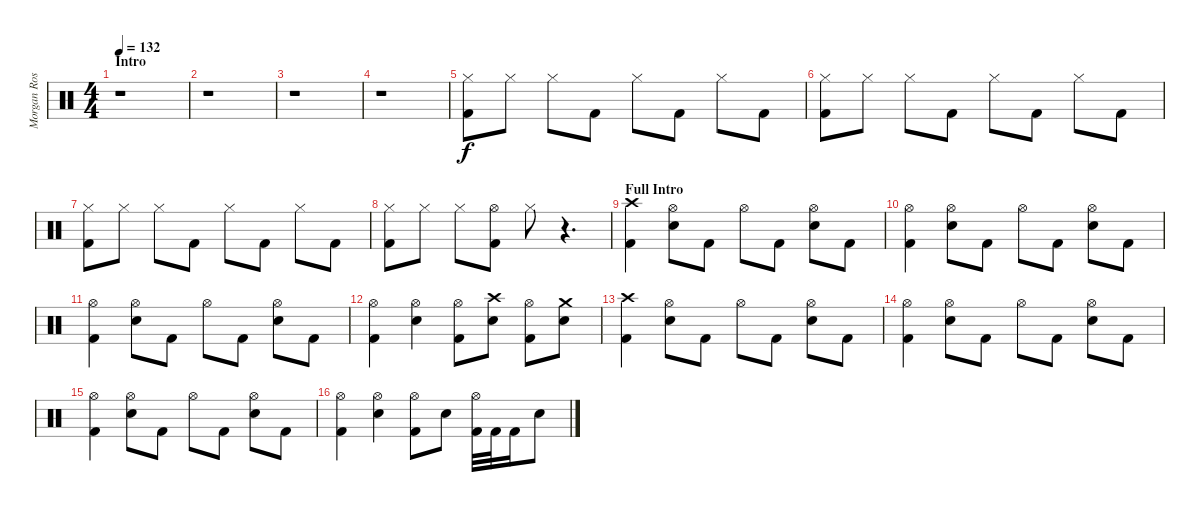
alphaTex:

\track ("Morgan Rose" "Morgan Ros") {instrument percussion}
\staff {score}
\articulation defaults
\ts (4 4)
\section ("" "Intro")
\tempo 132
\clef neutral
\ks c
r.1{dy f} |
r.1 |
r.1 |
r.1 |
("Hi-Hat (closed)" "Kick (hit) 2").8 "Hi-Hat (closed)".8 "Hi-Hat (closed)".8 "Kick (hit) 2".8 "Hi-Hat (closed)".8 "Kick (hit) 2".8 "Hi-Hat (closed)".8 "Kick (hit) 2".8 |
("Hi-Hat (closed)" "Kick (hit) 2").8 "Hi-Hat (closed)".8 "Hi-Hat (closed)".8 "Kick (hit) 2".8 "Hi-Hat (closed)".8 "Kick (hit) 2".8 "Hi-Hat (closed)".8 "Kick (hit) 2".8 |
("Hi-Hat (closed)" "Kick (hit) 2").8 "Hi-Hat (closed)".8 "Hi-Hat (closed)".8 "Kick (hit) 2".8 "Hi-Hat (closed)".8 "Kick (hit) 2".8 "Hi-Hat (closed)".8 "Kick (hit) 2".8 |
("Hi-Hat (closed)" "Kick (hit) 2").8 "Hi-Hat (closed)".8 "Hi-Hat (closed)".8 ("Hi-Hat (open)" "Kick (hit) 2").8 "Hi-Hat (closed)".8 r.4{d} |
\section ("" "Full Intro")
("Crash high (hit)" "Kick (hit) 2").4 ("Hi-Hat (open)" "Electric Snare (hit)").8 "Kick (hit) 2".8 "Hi-Hat (open)".8 "Kick (hit) 2".8 ("Hi-Hat (open)" "Electric Snare (hit)").8 "Kick (hit) 2".8 |
("Hi-Hat (open)" "Kick (hit) 2").4 ("Hi-Hat (open)" "Electric Snare (hit)").8 "Kick (hit) 2".8 "Hi-Hat (open)".8 "Kick (hit) 2".8 ("Hi-Hat (open)" "Electric Snare (hit)").8 "Kick (hit) 2".8 |
("Hi-Hat (open)" "Kick (hit) 2").4 ("Hi-Hat (open)" "Electric Snare (hit)").8 "Kick (hit) 2".8 "Hi-Hat (open)".8 "Kick (hit) 2".8 ("Hi-Hat (open)" "Electric Snare (hit)").8 "Kick (hit) 2".8 |
("Hi-Hat (open)" "Kick (hit) 2").4 ("Hi-Hat (open)" "Electric Snare (hit)").4 ("Hi-Hat (open)" "Kick (hit) 2").8 ("Crash high (hit)" "Electric Snare (hit)").8 ("Hi-Hat (open)" "Kick (hit) 2").8 ("Crash medium (hit)" "Electric Snare (hit)").8 |
("Crash high (hit)" "Kick (hit) 2").4 ("Hi-Hat (open)" "Electric Snare (hit)").8 "Kick (hit) 2".8 "Hi-Hat (open)".8 "Kick (hit) 2".8 ("Hi-Hat (open)" "Electric Snare (hit)").8 "Kick (hit) 2".8 |
("Hi-Hat (open)" "Kick (hit) 2").4 ("Hi-Hat (open)" "Electric Snare (hit)").8 "Kick (hit) 2".8 "Hi-Hat (open)".8 "Kick (hit) 2".8 ("Hi-Hat (open)" "Electric Snare (hit)").8 "Kick (hit) 2".8 |
("Hi-Hat (open)" "Kick (hit) 2").4 ("Hi-Hat (open)" "Electric Snare (hit)").8 "Kick (hit) 2".8 "Hi-Hat (open)".8 "Kick (hit) 2".8 ("Hi-Hat (open)" "Electric Snare (hit)").8 "Kick (hit) 2".8 |
("Hi-Hat (open)" "Kick (hit) 2").4 ("Hi-Hat (open)" "Electric Snare (hit)").4 ("Hi-Hat (open)" "Kick (hit) 2").8 "Electric Snare (hit)".8 ("Hi-Hat (open)" "Kick (hit) 2").32 "Kick (hit) 2".32 "Kick (hit) 2".16 "Electric Snare (hit)".8
